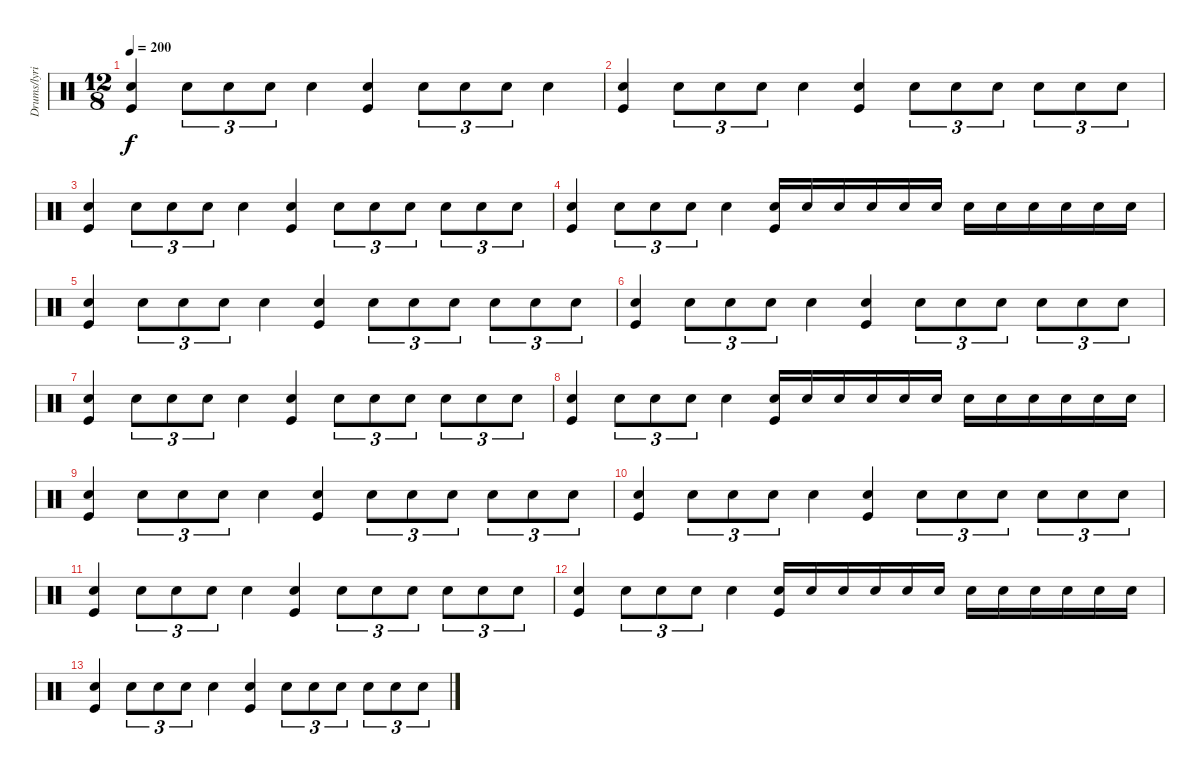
\track ("Drums/lyrics" "Drums/lyri") {instrument percussion}
\staff {score}
\articulation defaults
\ts (12 8)
\tempo 200
\clef neutral
\ks c
("Snare (hit) 2" "Kick (hit)").4{dy f} "Snare (hit) 2".8{tu (3 2)} "Snare (hit) 2".8{tu (3 2)} "Snare (hit) 2".8{tu (3 2)} "Snare (hit) 2".4 ("Snare (hit) 2" "Kick (hit)").4 "Snare (hit) 2".8{tu (3 2)} "Snare (hit) 2".8{tu (3 2)} "Snare (hit) 2".8{tu (3 2)} "Snare (hit) 2".4 |
("Snare (hit) 2" "Kick (hit)").4 "Snare (hit) 2".8{tu (3 2)} "Snare (hit) 2".8{tu (3 2)} "Snare (hit) 2".8{tu (3 2)} "Snare (hit) 2".4 ("Snare (hit) 2" "Kick (hit)").4 "Snare (hit) 2".8{tu (3 2)} "Snare (hit) 2".8{tu (3 2)} "Snare (hit) 2".8{tu (3 2)} "Snare (hit) 2".8{tu (3 2)} "Snare (hit) 2".8{tu (3 2)} "Snare (hit) 2".8{tu (3 2)} |
("Snare (hit) 2" "Kick (hit)").4 "Snare (hit) 2".8{tu (3 2)} "Snare (hit) 2".8{tu (3 2)} "Snare (hit) 2".8{tu (3 2)} "Snare (hit) 2".4 ("Snare (hit) 2" "Kick (hit)").4 "Snare (hit) 2".8{tu (3 2)} "Snare (hit) 2".8{tu (3 2)} "Snare (hit) 2".8{tu (3 2)} "Snare (hit) 2".8{tu (3 2)} "Snare (hit) 2".8{tu (3 2)} "Snare (hit) 2".8{tu (3 2)} |
("Snare (hit) 2" "Kick (hit)").4 "Snare (hit) 2".8{tu (3 2)} "Snare (hit) 2".8{tu (3 2)} "Snare (hit) 2".8{tu (3 2)} "Snare (hit) 2".4 ("Snare (hit) 2" "Kick (hit)").16 "Snare (hit) 2".16 "Snare (hit) 2".16 "Snare (hit) 2".16 "Snare (hit) 2".16 "Snare (hit) 2".16 "Snare (hit) 2".16 "Snare (hit) 2".16 "Snare (hit) 2".16 "Snare (hit) 2".16 "Snare (hit) 2".16 "Snare (hit) 2".16 |
("Snare (hit) 2" "Kick (hit)").4 "Snare (hit) 2".8{tu (3 2)} "Snare (hit) 2".8{tu (3 2)} "Snare (hit) 2".8{tu (3 2)} "Snare (hit) 2".4 ("Snare (hit) 2" "Kick (hit)").4 "Snare (hit) 2".8{tu (3 2)} "Snare (hit) 2".8{tu (3 2)} "Snare (hit) 2".8{tu (3 2)} "Snare (hit) 2".8{tu (3 2)} "Snare (hit) 2".8{tu (3 2)} "Snare (hit) 2".8{tu (3 2)} |
("Snare (hit) 2" "Kick (hit)").4 "Snare (hit) 2".8{tu (3 2)} "Snare (hit) 2".8{tu (3 2)} "Snare (hit) 2".8{tu (3 2)} "Snare (hit) 2".4 ("Snare (hit) 2" "Kick (hit)").4 "Snare (hit) 2".8{tu (3 2)} "Snare (hit) 2".8{tu (3 2)} "Snare (hit) 2".8{tu (3 2)} "Snare (hit) 2".8{tu (3 2)} "Snare (hit) 2".8{tu (3 2)} "Snare (hit) 2".8{tu (3 2)} |
("Snare (hit) 2" "Kick (hit)").4 "Snare (hit) 2".8{tu (3 2)} "Snare (hit) 2".8{tu (3 2)} "Snare (hit) 2".8{tu (3 2)} "Snare (hit) 2".4 ("Snare (hit) 2" "Kick (hit)").4 "Snare (hit) 2".8{tu (3 2)} "Snare (hit) 2".8{tu (3 2)} "Snare (hit) 2".8{tu (3 2)} "Snare (hit) 2".8{tu (3 2)} "Snare (hit) 2".8{tu (3 2)} "Snare (hit) 2".8{tu (3 2)} |
("Snare (hit) 2" "Kick (hit)").4 "Snare (hit) 2".8{tu (3 2)} "Snare (hit) 2".8{tu (3 2)} "Snare (hit) 2".8{tu (3 2)} "Snare (hit) 2".4 ("Snare (hit) 2" "Kick (hit)").16 "Snare (hit) 2".16 "Snare (hit) 2".16 "Snare (hit) 2".16 "Snare (hit) 2".16 "Snare (hit) 2".16 "Snare (hit) 2".16 "Snare (hit) 2".16 "Snare (hit) 2".16 "Snare (hit) 2".16 "Snare (hit) 2".16 "Snare (hit) 2".16 |
("Snare (hit) 2" "Kick (hit)").4 "Snare (hit) 2".8{tu (3 2)} "Snare (hit) 2".8{tu (3 2)} "Snare (hit) 2".8{tu (3 2)} "Snare (hit) 2".4 ("Snare (hit) 2" "Kick (hit)").4 "Snare (hit) 2".8{tu (3 2)} "Snare (hit) 2".8{tu (3 2)} "Snare (hit) 2".8{tu (3 2)} "Snare (hit) 2".8{tu (3 2)} "Snare (hit) 2".8{tu (3 2)} "Snare (hit) 2".8{tu (3 2)} |
("Snare (hit) 2" "Kick (hit)").4 "Snare (hit) 2".8{tu (3 2)} "Snare (hit) 2".8{tu (3 2)} "Snare (hit) 2".8{tu (3 2)} "Snare (hit) 2".4 ("Snare (hit) 2" "Kick (hit)").4 "Snare (hit) 2".8{tu (3 2)} "Snare (hit) 2".8{tu (3 2)} "Snare (hit) 2".8{tu (3 2)} "Snare (hit) 2".8{tu (3 2)} "Snare (hit) 2".8{tu (3 2)} "Snare (hit) 2".8{tu (3 2)} |
("Snare (hit) 2" "Kick (hit)").4 "Snare (hit) 2".8{tu (3 2)} "Snare (hit) 2".8{tu (3 2)} "Snare (hit) 2".8{tu (3 2)} "Snare (hit) 2".4 ("Snare (hit) 2" "Kick (hit)").4 "Snare (hit) 2".8{tu (3 2)} "Snare (hit) 2".8{tu (3 2)} "Snare (hit) 2".8{tu (3 2)} "Snare (hit) 2".8{tu (3 2)} "Snare (hit) 2".8{tu (3 2)} "Snare (hit) 2".8{tu (3 2)} |
("Snare (hit) 2" "Kick (hit)").4 "Snare (hit) 2".8{tu (3 2)} "Snare (hit) 2".8{tu (3 2)} "Snare (hit) 2".8{tu (3 2)} "Snare (hit) 2".4 ("Snare (hit) 2" "Kick (hit)").16 "Snare (hit) 2".16 "Snare (hit) 2".16 "Snare (hit) 2".16 "Snare (hit) 2".16 "Snare (hit) 2".16 "Snare (hit) 2".16 "Snare (hit) 2".16 "Snare (hit) 2".16 "Snare (hit) 2".16 "Snare (hit) 2".16 "Snare (hit) 2".16 |
("Snare (hit) 2" "Kick (hit)").4 "Snare (hit) 2".8{tu (3 2)} "Snare (hit) 2".8{tu (3 2)} "Snare (hit) 2".8{tu (3 2)} "Snare (hit) 2".4 ("Snare (hit) 2" "Kick (hit)").4 "Snare (hit) 2".8{tu (3 2)} "Snare (hit) 2".8{tu (3 2)} "Snare (hit) 2".8{tu (3 2)} "Snare (hit) 2".8{tu (3 2)} "Snare (hit) 2".8{tu (3 2)} "Snare (hit) 2".8{tu (3 2)}
